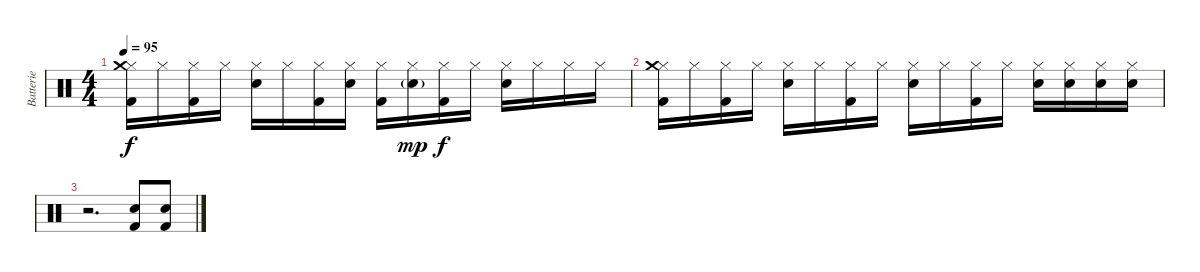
\track ("Batterie" "Batterie") {instrument percussion}
\staff {score}
\articulation defaults
\ts (4 4)
\tempo 95
\clef neutral
\ks c
("Hi-Hat (closed)" "Crash medium (hit)" "Kick (hit) 2").16{dy f} "Hi-Hat (closed)".16 ("Hi-Hat (closed)" "Kick (hit) 2").16 "Hi-Hat (closed)".16 ("Hi-Hat (closed)" "Electric Snare (hit)").16 "Hi-Hat (closed)".16 ("Hi-Hat (closed)" "Kick (hit) 2").16 ("Hi-Hat (closed)" "Electric Snare (hit)").16 ("Hi-Hat (closed)" "Kick (hit) 2").16 ("Hi-Hat (closed)" "Electric Snare (hit)"{g}).16{dy mp} ("Hi-Hat (closed)" "Kick (hit) 2").16{dy f} "Hi-Hat (closed)".16 ("Hi-Hat (closed)" "Electric Snare (hit)").16 "Hi-Hat (closed)".16 "Hi-Hat (closed)".16 "Hi-Hat (closed)".16 |
("Hi-Hat (closed)" "Crash medium (hit)" "Kick (hit) 2").16 "Hi-Hat (closed)".16 ("Hi-Hat (closed)" "Kick (hit) 2").16 "Hi-Hat (closed)".16 ("Hi-Hat (closed)" "Electric Snare (hit)").16 "Hi-Hat (closed)".16 ("Hi-Hat (closed)" "Kick (hit) 2").16 "Hi-Hat (closed)".16 ("Hi-Hat (closed)" "Electric Snare (hit)").16 "Hi-Hat (closed)".16 ("Hi-Hat (closed)" "Kick (hit) 2").16 "Hi-Hat (closed)".16 ("Hi-Hat (closed)" "Electric Snare (hit)").16 ("Hi-Hat (closed)" "Electric Snare (hit)").16 ("Hi-Hat (closed)" "Electric Snare (hit)").16 ("Hi-Hat (closed)" "Electric Snare (hit)").16 |
r.2{d} ("Electric Snare (hit)" "Kick (hit) 2").8 ("Electric Snare (hit)" "Kick (hit) 2").8
